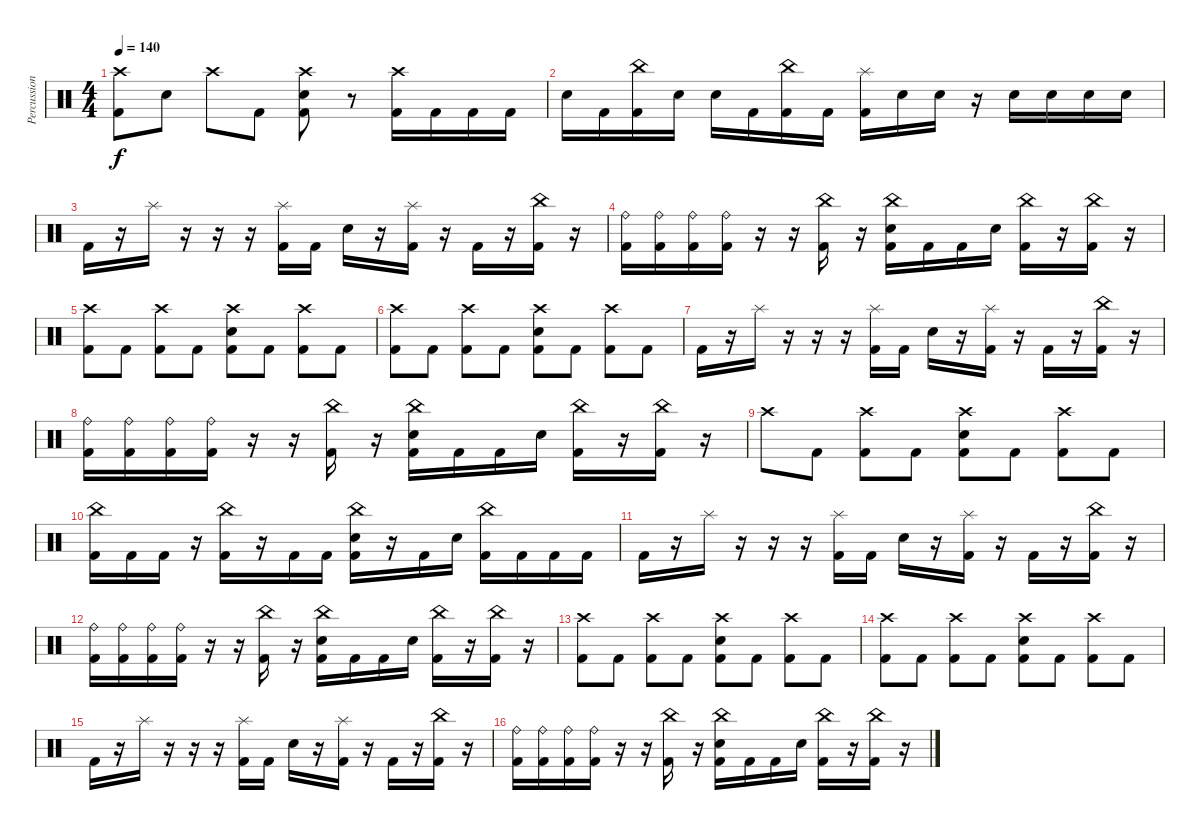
\track ("Percussion" "Percussion") {instrument percussion}
\staff {score}
\articulation defaults
\ts (4 4)
\tempo 140
\clef neutral
\ks c
("Crash high (hit)" "Kick (hit) 2").8{dy f} "Snare (hit) 2".8 "Crash high (hit)".8 "Kick (hit) 2".8 ("Crash high (hit)" "Snare (hit) 2" "Kick (hit) 2").8 r.8 ("Crash high (hit)" "Kick (hit) 2").16 "Kick (hit) 2".16 "Kick (hit) 2".16 "Kick (hit) 2".16 |
"Snare (hit) 2".16 "Kick (hit) 2".16 ("China (hit)" "Kick (hit) 2").16 "Snare (hit) 2".16 "Snare (hit) 2".16 "Kick (hit) 2".16 ("China (hit)" "Kick (hit) 2").16 "Kick (hit) 2".16 ("Splash (hit)" "Kick (hit) 2").16 "Snare (hit) 2".16 "Snare (hit) 2".16 r.16 "Snare (hit) 2".16 "Snare (hit) 2".16 "Snare (hit) 2".16 "Snare (hit) 2".16 |
"Kick (hit) 2".16 r.16 "Splash (hit)".16 r.16 r.16 r.16 ("Splash (hit)" "Kick (hit) 2").16 "Kick (hit) 2".16 "Snare (hit) 2".16 r.16 ("Splash (hit)" "Kick (hit) 2").16 r.16 "Kick (hit) 2".16 r.16 ("China (hit)" "Kick (hit) 2").16 r.16 |
("Ride (bell)" "Kick (hit) 2").16 ("Ride (bell)" "Kick (hit) 2").16 ("Ride (bell)" "Kick (hit) 2").16 ("Ride (bell)" "Kick (hit) 2").16 r.16 r.16 ("China (hit)" "Kick (hit) 2").16 r.16 ("China (hit)" "Snare (hit) 2" "Kick (hit) 2").16 "Kick (hit) 2".16 "Kick (hit) 2".16 "Snare (hit) 2".16 ("China (hit)" "Kick (hit) 2").16 r.16 ("China (hit)" "Kick (hit) 2").16 r.16 |
("Crash high (hit)" "Kick (hit) 2").8 "Kick (hit) 2".8 ("Crash high (hit)" "Kick (hit) 2").8 "Kick (hit) 2".8 ("Crash high (hit)" "Snare (hit) 2" "Kick (hit) 2").8 "Kick (hit) 2".8 ("Crash high (hit)" "Kick (hit) 2").8 "Kick (hit) 2".8 |
("Crash high (hit)" "Kick (hit) 2").8 "Kick (hit) 2".8 ("Crash high (hit)" "Kick (hit) 2").8 "Kick (hit) 2".8 ("Crash high (hit)" "Snare (hit) 2" "Kick (hit) 2").8 "Kick (hit) 2".8 ("Crash high (hit)" "Kick (hit) 2").8 "Kick (hit) 2".8 |
"Kick (hit) 2".16 r.16 "Splash (hit)".16 r.16 r.16 r.16 ("Splash (hit)" "Kick (hit) 2").16 "Kick (hit) 2".16 "Snare (hit) 2".16 r.16 ("Splash (hit)" "Kick (hit) 2").16 r.16 "Kick (hit) 2".16 r.16 ("China (hit)" "Kick (hit) 2").16 r.16 |
("Ride (bell)" "Kick (hit) 2").16 ("Ride (bell)" "Kick (hit) 2").16 ("Ride (bell)" "Kick (hit) 2").16 ("Ride (bell)" "Kick (hit) 2").16 r.16 r.16 ("China (hit)" "Kick (hit) 2").16 r.16 ("China (hit)" "Snare (hit) 2" "Kick (hit) 2").16 "Kick (hit) 2".16 "Kick (hit) 2".16 "Snare (hit) 2".16 ("China (hit)" "Kick (hit) 2").16 r.16 ("China (hit)" "Kick (hit) 2").16 r.16 |
"Crash high (hit)".8 "Kick (hit) 2".8 ("Crash high (hit)" "Kick (hit) 2").8 "Kick (hit) 2".8 ("Crash high (hit)" "Snare (hit) 2" "Kick (hit) 2").8 "Kick (hit) 2".8 ("Crash high (hit)" "Kick (hit) 2").8 "Kick (hit) 2".8 |
("China (hit)" "Kick (hit) 2").16 "Kick (hit) 2".16 "Kick (hit) 2".16 r.16 ("China (hit)" "Kick (hit) 2").16 r.16 "Kick (hit) 2".16 "Kick (hit) 2".16 ("China (hit)" "Snare (hit) 2" "Kick (hit) 2").16 r.16 "Kick (hit) 2".16 "Snare (hit) 2".16 ("China (hit)" "Kick (hit) 2").16 "Kick (hit) 2".16 "Kick (hit) 2".16 "Kick (hit) 2".16 |
"Kick (hit) 2".16 r.16 "Splash (hit)".16 r.16 r.16 r.16 ("Splash (hit)" "Kick (hit) 2").16 "Kick (hit) 2".16 "Snare (hit) 2".16 r.16 ("Splash (hit)" "Kick (hit) 2").16 r.16 "Kick (hit) 2".16 r.16 ("China (hit)" "Kick (hit) 2").16 r.16 |
("Ride (bell)" "Kick (hit) 2").16 ("Ride (bell)" "Kick (hit) 2").16 ("Ride (bell)" "Kick (hit) 2").16 ("Ride (bell)" "Kick (hit) 2").16 r.16 r.16 ("China (hit)" "Kick (hit) 2").16 r.16 ("China (hit)" "Snare (hit) 2" "Kick (hit) 2").16 "Kick (hit) 2".16 "Kick (hit) 2".16 "Snare (hit) 2".16 ("China (hit)" "Kick (hit) 2").16 r.16 ("China (hit)" "Kick (hit) 2").16 r.16 |
("Crash high (hit)" "Kick (hit) 2").8 "Kick (hit) 2".8 ("Crash high (hit)" "Kick (hit) 2").8 "Kick (hit) 2".8 ("Crash high (hit)" "Snare (hit) 2" "Kick (hit) 2").8 "Kick (hit) 2".8 ("Crash high (hit)" "Kick (hit) 2").8 "Kick (hit) 2".8 |
("Crash high (hit)" "Kick (hit) 2").8 "Kick (hit) 2".8 ("Crash high (hit)" "Kick (hit) 2").8 "Kick (hit) 2".8 ("Crash high (hit)" "Snare (hit) 2" "Kick (hit) 2").8 "Kick (hit) 2".8 ("Crash high (hit)" "Kick (hit) 2").8 "Kick (hit) 2".8 |
"Kick (hit) 2".16 r.16 "Splash (hit)".16 r.16 r.16 r.16 ("Splash (hit)" "Kick (hit) 2").16 "Kick (hit) 2".16 "Snare (hit) 2".16 r.16 ("Splash (hit)" "Kick (hit) 2").16 r.16 "Kick (hit) 2".16 r.16 ("China (hit)" "Kick (hit) 2").16 r.16 |
("Ride (bell)" "Kick (hit) 2").16 ("Ride (bell)" "Kick (hit) 2").16 ("Ride (bell)" "Kick (hit) 2").16 ("Ride (bell)" "Kick (hit) 2").16 r.16 r.16 ("China (hit)" "Kick (hit) 2").16 r.16 ("China (hit)" "Snare (hit) 2" "Kick (hit) 2").16 "Kick (hit) 2".16 "Kick (hit) 2".16 "Snare (hit) 2".16 ("China (hit)" "Kick (hit) 2").16 r.16 ("China (hit)" "Kick (hit) 2").16 r.16
